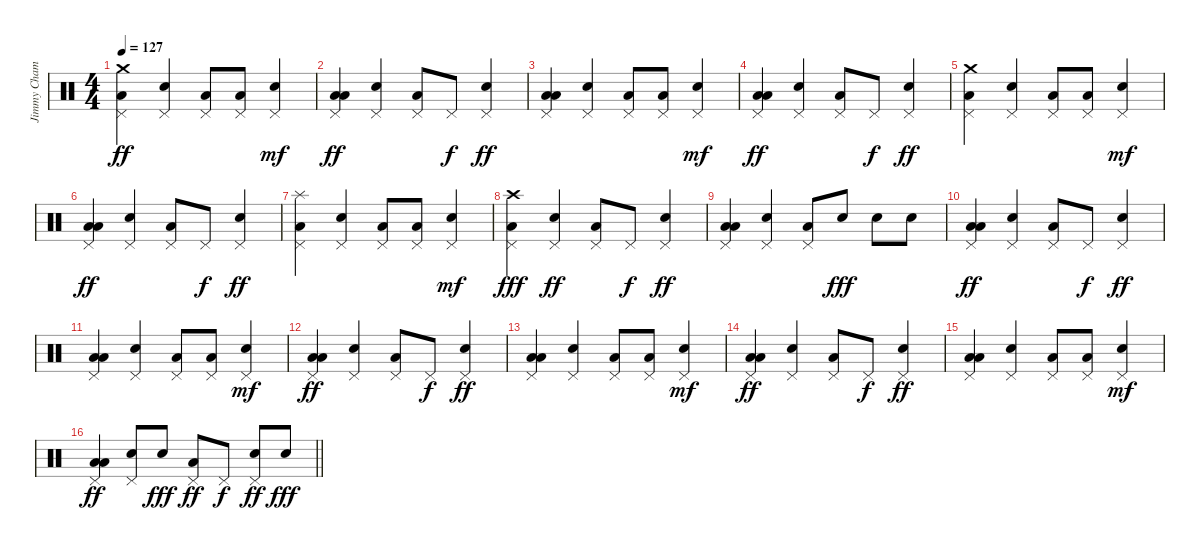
\track ("Jimmy Chamberlin" "Jimmy Cham") {instrument percussion}
\staff {score}
\articulation defaults
\ts (4 4)
\tempo 127
\clef neutral
\ks c
("Crash medium (hit)" "Low Tom (hit)" "Pedal Hi-Hat (hit)").4{dy ff} ("Snare (hit) 2" "Pedal Hi-Hat (hit)").4 ("Low Floor Tom (hit)" "Pedal Hi-Hat (hit)").8 ("Low Floor Tom (hit)" "Pedal Hi-Hat (hit)").8 ("Snare (hit) 2" "Pedal Hi-Hat (hit)").4{dy mf} |
("Low Floor Tom (hit)" "Low Tom (hit)" "Pedal Hi-Hat (hit)").4{dy ff} ("Snare (hit) 2" "Pedal Hi-Hat (hit)").4 ("Low Floor Tom (hit)" "Pedal Hi-Hat (hit)").8 "Pedal Hi-Hat (hit)".8{dy f} ("Snare (hit) 2" "Pedal Hi-Hat (hit)").4{dy ff} |
("Low Floor Tom (hit)" "Low Tom (hit)" "Pedal Hi-Hat (hit)").4 ("Snare (hit) 2" "Pedal Hi-Hat (hit)").4 ("Low Floor Tom (hit)" "Pedal Hi-Hat (hit)").8 ("Low Floor Tom (hit)" "Pedal Hi-Hat (hit)").8 ("Snare (hit) 2" "Pedal Hi-Hat (hit)").4{dy mf} |
("Low Floor Tom (hit)" "Low Tom (hit)" "Pedal Hi-Hat (hit)").4{dy ff} ("Snare (hit) 2" "Pedal Hi-Hat (hit)").4 ("Low Floor Tom (hit)" "Pedal Hi-Hat (hit)").8 "Pedal Hi-Hat (hit)".8{dy f} ("Snare (hit) 2" "Pedal Hi-Hat (hit)").4{dy ff} |
("Crash medium (hit)" "Low Tom (hit)" "Pedal Hi-Hat (hit)").4 ("Snare (hit) 2" "Pedal Hi-Hat (hit)").4 ("Low Floor Tom (hit)" "Pedal Hi-Hat (hit)").8 ("Low Floor Tom (hit)" "Pedal Hi-Hat (hit)").8 ("Snare (hit) 2" "Pedal Hi-Hat (hit)").4{dy mf} |
("Low Floor Tom (hit)" "Low Tom (hit)" "Pedal Hi-Hat (hit)").4{dy ff} ("Snare (hit) 2" "Pedal Hi-Hat (hit)").4 ("Low Floor Tom (hit)" "Pedal Hi-Hat (hit)").8 "Pedal Hi-Hat (hit)".8{dy f} ("Snare (hit) 2" "Pedal Hi-Hat (hit)").4{dy ff} |
("Splash (hit)" "Low Tom (hit)" "Pedal Hi-Hat (hit)").4 ("Snare (hit) 2" "Pedal Hi-Hat (hit)").4 ("Low Floor Tom (hit)" "Pedal Hi-Hat (hit)").8 ("Low Floor Tom (hit)" "Pedal Hi-Hat (hit)").8 ("Snare (hit) 2" "Pedal Hi-Hat (hit)").4{dy mf} |
("Low Floor Tom (hit)" "Crash high (hit)" "Pedal Hi-Hat (hit)").4{dy fff} ("Snare (hit) 2" "Pedal Hi-Hat (hit)").4{dy ff} ("Low Floor Tom (hit)" "Pedal Hi-Hat (hit)").8 "Pedal Hi-Hat (hit)".8{dy f} ("Snare (hit) 2" "Pedal Hi-Hat (hit)").4{dy ff} |
("Low Floor Tom (hit)" "Low Tom (hit)" "Pedal Hi-Hat (hit)").4 ("Snare (hit) 2" "Pedal Hi-Hat (hit)").4 ("Low Floor Tom (hit)" "Pedal Hi-Hat (hit)").8 "Snare (hit) 2".8{dy fff} "Snare (hit) 2".8 "Snare (hit) 2".8 |
("Low Floor Tom (hit)" "Low Tom (hit)" "Pedal Hi-Hat (hit)").4{dy ff} ("Snare (hit) 2" "Pedal Hi-Hat (hit)").4 ("Low Floor Tom (hit)" "Pedal Hi-Hat (hit)").8 "Pedal Hi-Hat (hit)".8{dy f} ("Snare (hit) 2" "Pedal Hi-Hat (hit)").4{dy ff} |
("Low Floor Tom (hit)" "Low Tom (hit)" "Pedal Hi-Hat (hit)").4 ("Snare (hit) 2" "Pedal Hi-Hat (hit)").4 ("Low Floor Tom (hit)" "Pedal Hi-Hat (hit)").8 ("Low Floor Tom (hit)" "Pedal Hi-Hat (hit)").8 ("Snare (hit) 2" "Pedal Hi-Hat (hit)").4{dy mf} |
("Low Floor Tom (hit)" "Low Tom (hit)" "Pedal Hi-Hat (hit)").4{dy ff} ("Snare (hit) 2" "Pedal Hi-Hat (hit)").4 ("Low Floor Tom (hit)" "Pedal Hi-Hat (hit)").8 "Pedal Hi-Hat (hit)".8{dy f} ("Snare (hit) 2" "Pedal Hi-Hat (hit)").4{dy ff} |
("Low Floor Tom (hit)" "Low Tom (hit)" "Pedal Hi-Hat (hit)").4 ("Snare (hit) 2" "Pedal Hi-Hat (hit)").4 ("Low Floor Tom (hit)" "Pedal Hi-Hat (hit)").8 ("Low Floor Tom (hit)" "Pedal Hi-Hat (hit)").8 ("Snare (hit) 2" "Pedal Hi-Hat (hit)").4{dy mf} |
("Low Floor Tom (hit)" "Low Tom (hit)" "Pedal Hi-Hat (hit)").4{dy ff} ("Snare (hit) 2" "Pedal Hi-Hat (hit)").4 ("Low Floor Tom (hit)" "Pedal Hi-Hat (hit)").8 "Pedal Hi-Hat (hit)".8{dy f} ("Snare (hit) 2" "Pedal Hi-Hat (hit)").4{dy ff} |
("Low Floor Tom (hit)" "Low Tom (hit)" "Pedal Hi-Hat (hit)").4 ("Snare (hit) 2" "Pedal Hi-Hat (hit)").4 ("Low Floor Tom (hit)" "Pedal Hi-Hat (hit)").8 ("Low Floor Tom (hit)" "Pedal Hi-Hat (hit)").8 ("Snare (hit) 2" "Pedal Hi-Hat (hit)").4{dy mf} |
\barLineRight lightlight
("Low Floor Tom (hit)" "Low Tom (hit)" "Pedal Hi-Hat (hit)").4{dy ff} ("Snare (hit) 2" "Pedal Hi-Hat (hit)").8 "Snare (hit) 2".8{dy fff} ("Low Floor Tom (hit)" "Pedal Hi-Hat (hit)").8{dy ff} "Pedal Hi-Hat (hit)".8{dy f} ("Snare (hit) 2" "Pedal Hi-Hat (hit)").8{dy ff} "Snare (hit) 2".8{dy fff}
